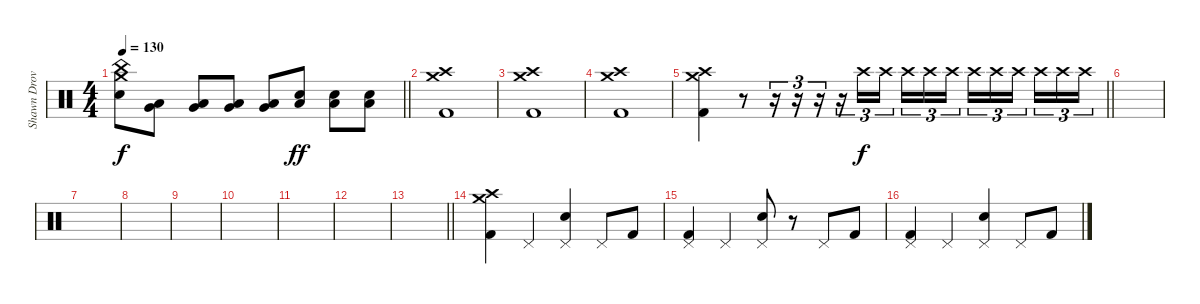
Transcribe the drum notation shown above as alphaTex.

\track ("Shawn Drover" "Shawn Drov") {instrument percussion}
\staff {score}
\articulation defaults
\ts (4 4)
\tempo 130
\clef neutral
\barLineRight lightlight
\ks c
("China (hit)" "Snare (hit) 2" "Crash medium (hit)").8{dy f} ("Low Floor Tom (hit)" "Very Low Tom (hit)").8 ("Low Floor Tom (hit)" "Very Low Tom (hit)").8 ("Low Floor Tom (hit)" "Very Low Tom (hit)").8 ("Low Floor Tom (hit)" "Very Low Tom (hit)").8 ("Snare (hit) 2" "Low Floor Tom (hit)").8{dy ff} ("Snare (hit) 2" "Low Floor Tom (hit)").8 ("Snare (hit) 2" "Low Floor Tom (hit)").8 |
("Crash high (hit)" "Crash medium (hit)" "Kick (hit) 2").1 |
("Crash high (hit)" "Crash medium (hit)" "Kick (hit) 2").1 |
("Crash high (hit)" "Crash medium (hit)" "Kick (hit) 2").1 |
\barLineRight lightlight
("Crash high (hit)" "Crash medium (hit)" "Kick (hit) 2").4 r.8 r.16{tu (3 2)} r.16{tu (3 2)} r.16{tu (3 2) volume 0} r.16{tu (3 2) volume 13} "Crash high (hit)".16{tu (3 2) dy f} "Crash high (hit)".16{tu (3 2) beam splitsecondary} "Crash high (hit)".16{tu (3 2)} "Crash high (hit)".16{tu (3 2)} "Crash high (hit)".16{tu (3 2)} "Crash high (hit)".16{tu (3 2)} "Crash high (hit)".16{tu (3 2)} "Crash high (hit)".16{tu (3 2) beam splitsecondary} "Crash high (hit)".16{tu (3 2)} "Crash high (hit)".16{tu (3 2)} "Crash high (hit)".16{tu (3 2)} |
|
|
|
|
|
|
|
\barLineRight lightlight
|
("Crash high (hit)" "Crash medium (hit)" "Kick (hit) 2").4 "Pedal Hi-Hat (hit)".4 ("Pedal Hi-Hat (hit)" "Snare (hit) 2").4 "Pedal Hi-Hat (hit)".8 "Kick (hit) 2".8 |
("Pedal Hi-Hat (hit)" "Kick (hit) 2").4 "Pedal Hi-Hat (hit)".4 ("Pedal Hi-Hat (hit)" "Snare (hit) 2").8 r.8 "Pedal Hi-Hat (hit)".8 "Kick (hit) 2".8 |
("Pedal Hi-Hat (hit)" "Kick (hit) 2").4 "Pedal Hi-Hat (hit)".4 ("Pedal Hi-Hat (hit)" "Snare (hit) 2").4 "Pedal Hi-Hat (hit)".8 "Kick (hit) 2".8
